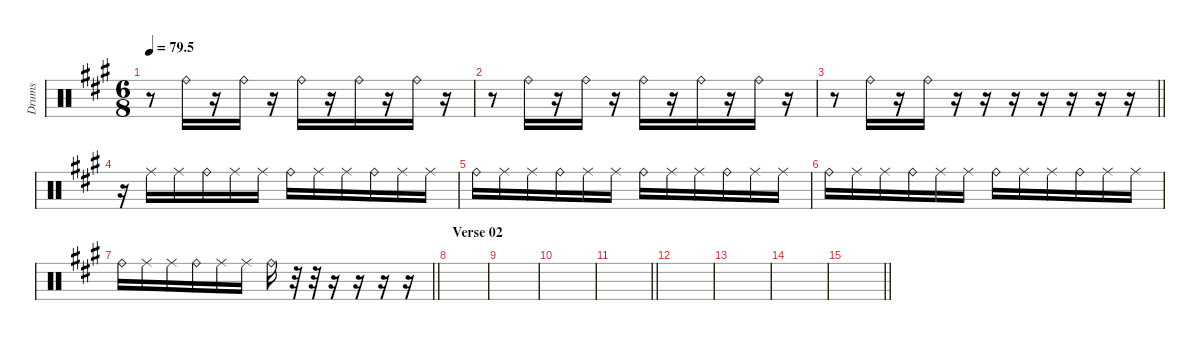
\defaultSystemsLayout 4
\hideDynamics
\bracketExtendMode nobrackets
\otherSystemsTrackNameOrientation horizontal
\track ("Raid" "Drums") {instrument percussion}
\staff {score}
\articulation defaults
\ts (6 8)
\tempo
79.5
\accidentals auto
\clef neutral
\ottava regular
\simile none
\scale
0.333333
\ks a
r.8{dy f} "Ride (bell)"{acc forcenatural}.16 r.16 "Ride (bell)"{acc forcenatural}.16 r.16 "Ride (bell)"{acc forcenatural}.16 r.16 "Ride (bell)"{acc forcenatural}.16 r.16 "Ride (bell)"{acc forcenatural}.16 r.16 |
\scale
0.333333 r.8 "Ride (bell)"{acc forcenatural}.16 r.16 "Ride (bell)"{acc forcenatural}.16 r.16 "Ride (bell)"{acc forcenatural}.16 r.16 "Ride (bell)"{acc forcenatural}.16 r.16 "Ride (bell)"{acc forcenatural}.16 r.16 |
\scale
0.333333
\barLineRight lightlight
r.8 "Ride (bell)"{acc forcenatural}.16 r.16 "Ride (bell)"{acc forcenatural}.16 r.16 r.16 r.16 r.16 r.16 r.16 r.16 |
\scale
0.333333 r.16 "Ride (middle)"{acc forcenatural}.16 "Ride (middle)"{acc forcenatural}.16 "Ride (bell)"{acc forcenatural}.16 "Ride (middle)"{acc forcenatural}.16 "Ride (middle)"{acc forcenatural}.16 "Ride (bell)"{acc forcenatural}.16 "Ride (middle)"{acc forcenatural}.16 "Ride (middle)"{acc forcenatural}.16 "Ride (bell)"{acc forcenatural}.16 "Ride (middle)"{acc forcenatural}.16 "Ride (middle)"{acc forcenatural}.16 |
\scale
0.333333 "Ride (bell)"{acc forcenatural}.16 "Ride (middle)"{acc forcenatural}.16 "Ride (middle)"{acc forcenatural}.16 "Ride (bell)"{acc forcenatural}.16 "Ride (middle)"{acc forcenatural}.16 "Ride (middle)"{acc forcenatural}.16 "Ride (bell)"{acc forcenatural}.16 "Ride (middle)"{acc forcenatural}.16 "Ride (middle)"{acc forcenatural}.16 "Ride (bell)"{acc forcenatural}.16 "Ride (middle)"{acc forcenatural}.16 "Ride (middle)"{acc forcenatural}.16 |
\scale
0.333333 "Ride (bell)"{acc forcenatural}.16 "Ride (middle)"{acc forcenatural}.16 "Ride (middle)"{acc forcenatural}.16 "Ride (bell)"{acc forcenatural}.16 "Ride (middle)"{acc forcenatural}.16 "Ride (middle)"{acc forcenatural}.16 "Ride (bell)"{acc forcenatural}.16 "Ride (middle)"{acc forcenatural}.16 "Ride (middle)"{acc forcenatural}.16 "Ride (bell)"{acc forcenatural}.16 "Ride (middle)"{acc forcenatural}.16 "Ride (middle)"{acc forcenatural}.16 |
\scale
0.333333
\barLineRight lightlight "Ride (bell)"{acc forcenatural}.16 "Ride (middle)"{acc forcenatural}.16 "Ride (middle)"{acc forcenatural}.16 "Ride (bell)"{acc forcenatural}.16 "Ride (middle)"{acc forcenatural}.16 "Ride (middle)"{acc forcenatural}.16 "Ride (bell)"{acc forcenatural}.16
r.32 r.32 r.16 r.16 r.16 r.16 |
\section ("" "Verse 02")
\scale
0.333333 |
\scale
0.333333 |
\scale
0.333333 |
\scale
0.333333
\barLineRight lightlight
|
\scale
0.333333 |
\scale
0.333333 |
\scale
0.333333 |
\scale
0.333333
\barLineRight lightlight
|
\scale
0.333333
